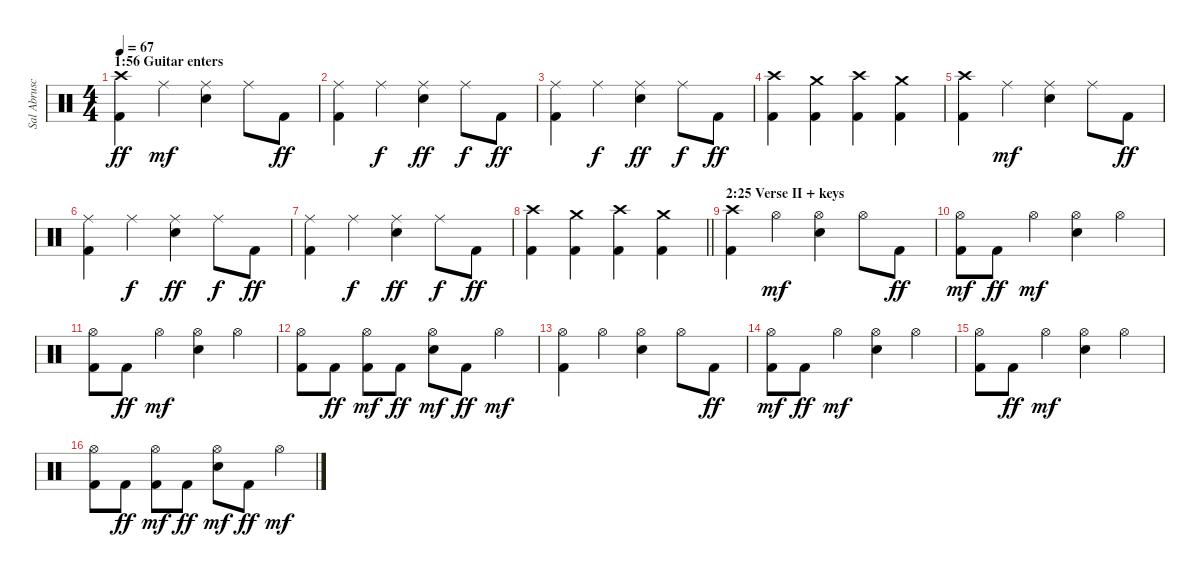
\track ("Sal Abruscato (Drums)" "Sal Abrusc") {instrument percussion}
\staff {score}
\articulation defaults
\ts (4 4)
\section ("" "1:56 Guitar enters")
\tempo 67
\clef neutral
\ks c
("Kick (hit) 2" "Crash high (hit)").4{dy ff} "Ride (middle)".4{dy mf} ("Electric Snare (hit)" "Ride (middle)").4 "Ride (middle)".8 "Kick (hit) 2".8{dy ff} |
("Kick (hit) 2" "Ride (middle)").4 "Ride (middle)".4{dy f} ("Electric Snare (hit)" "Ride (middle)").4{dy ff} "Ride (middle)".8{dy f} "Kick (hit) 2".8{dy ff} |
("Kick (hit) 2" "Ride (middle)").4 "Ride (middle)".4{dy f} ("Electric Snare (hit)" "Ride (middle)").4{dy ff} "Ride (middle)".8{dy f} "Kick (hit) 2".8{dy ff} |
("Kick (hit) 2" "Crash high (hit)").4 ("Kick (hit) 2" "Crash medium (hit)").4 ("Kick (hit) 2" "Crash high (hit)").4 ("Kick (hit) 2" "Crash medium (hit)").4 |
("Kick (hit) 2" "Crash high (hit)").4 "Ride (middle)".4{dy mf} ("Electric Snare (hit)" "Ride (middle)").4 "Ride (middle)".8 "Kick (hit) 2".8{dy ff} |
("Kick (hit) 2" "Ride (middle)").4 "Ride (middle)".4{dy f} ("Electric Snare (hit)" "Ride (middle)").4{dy ff} "Ride (middle)".8{dy f} "Kick (hit) 2".8{dy ff} |
("Kick (hit) 2" "Ride (middle)").4 "Ride (middle)".4{dy f} ("Electric Snare (hit)" "Ride (middle)").4{dy ff} "Ride (middle)".8{dy f} "Kick (hit) 2".8{dy ff} |
\barLineRight lightlight
("Kick (hit) 2" "Crash high (hit)").4 ("Kick (hit) 2" "Crash medium (hit)").4 ("Kick (hit) 2" "Crash high (hit)").4 ("Kick (hit) 2" "Crash medium (hit)").4 |
\section ("" "2:25 Verse II + keys")
("Kick (hit) 2" "Crash high (hit)").4 "Hi-Hat (open)".4{dy mf} ("Electric Snare (hit)" "Hi-Hat (open)").4 "Hi-Hat (open)".8 "Kick (hit) 2".8{dy ff} |
("Kick (hit) 2" "Hi-Hat (open)").8{dy mf} "Kick (hit) 2".8{dy ff} "Hi-Hat (open)".4{dy mf} ("Electric Snare (hit)" "Hi-Hat (open)").4 "Hi-Hat (open)".4 |
("Kick (hit) 2" "Hi-Hat (open)").8 "Kick (hit) 2".8{dy ff} "Hi-Hat (open)".4{dy mf} ("Electric Snare (hit)" "Hi-Hat (open)").4 "Hi-Hat (open)".4 |
("Kick (hit) 2" "Hi-Hat (open)").8 "Kick (hit) 2".8{dy ff} ("Kick (hit) 2" "Hi-Hat (open)").8{dy mf} "Kick (hit) 2".8{dy ff} ("Electric Snare (hit)" "Hi-Hat (open)").8{dy mf} "Kick (hit) 2".8{dy ff} "Hi-Hat (open)".4{dy mf} |
("Kick (hit) 2" "Hi-Hat (open)").4 "Hi-Hat (open)".4 ("Electric Snare (hit)" "Hi-Hat (open)").4 "Hi-Hat (open)".8 "Kick (hit) 2".8{dy ff} |
("Kick (hit) 2" "Hi-Hat (open)").8{dy mf} "Kick (hit) 2".8{dy ff} "Hi-Hat (open)".4{dy mf} ("Electric Snare (hit)" "Hi-Hat (open)").4 "Hi-Hat (open)".4 |
("Kick (hit) 2" "Hi-Hat (open)").8 "Kick (hit) 2".8{dy ff} "Hi-Hat (open)".4{dy mf} ("Electric Snare (hit)" "Hi-Hat (open)").4 "Hi-Hat (open)".4 |
("Kick (hit) 2" "Hi-Hat (open)").8 "Kick (hit) 2".8{dy ff} ("Kick (hit) 2" "Hi-Hat (open)").8{dy mf} "Kick (hit) 2".8{dy ff} ("Electric Snare (hit)" "Hi-Hat (open)").8{dy mf} "Kick (hit) 2".8{dy ff} "Hi-Hat (open)".4{dy mf}
